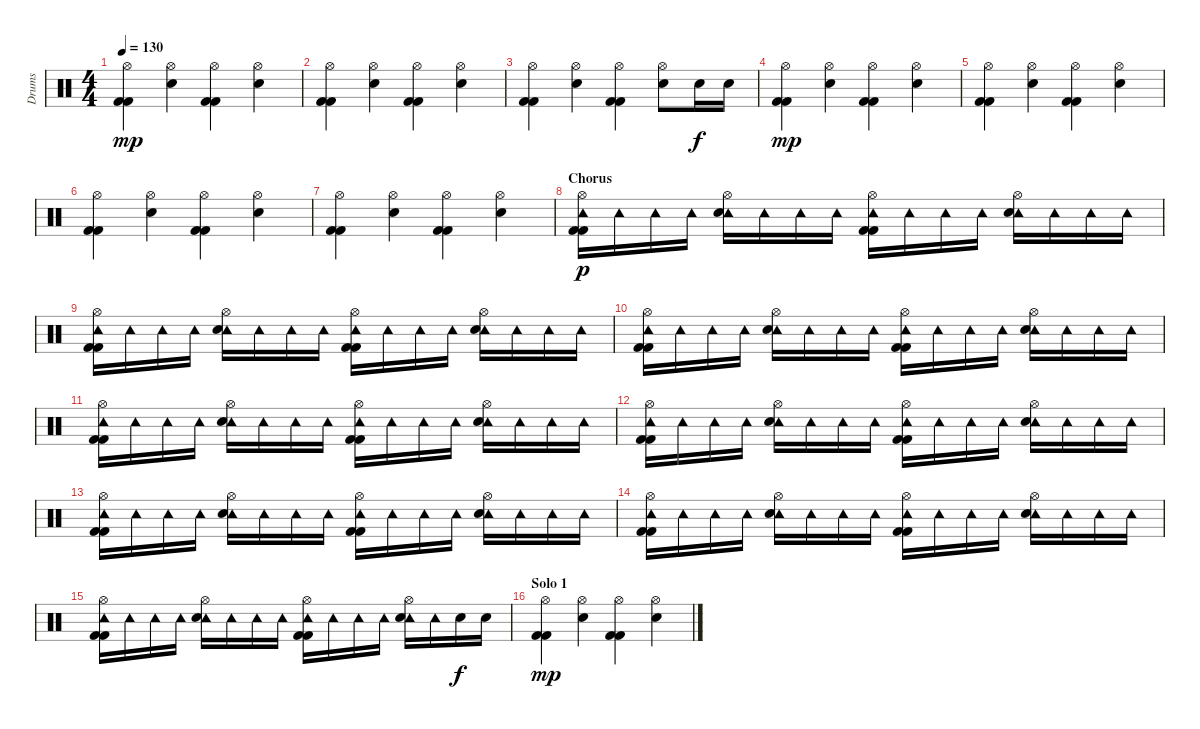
\track ("Drums" "Drums") {instrument percussion}
\staff {score}
\articulation defaults
\ts (4 4)
\tempo 130
\clef neutral
\ks c
("Hi-Hat (open)" "Kick (hit) 2" "Kick (hit) 2").4{dy mp} ("Hi-Hat (open)" "Snare (hit) 2").4 ("Hi-Hat (open)" "Kick (hit) 2" "Kick (hit) 2").4 ("Hi-Hat (open)" "Snare (hit) 2").4 |
("Hi-Hat (open)" "Kick (hit) 2" "Kick (hit) 2").4 ("Hi-Hat (open)" "Snare (hit) 2").4 ("Hi-Hat (open)" "Kick (hit) 2" "Kick (hit) 2").4 ("Hi-Hat (open)" "Snare (hit) 2").4 |
("Hi-Hat (open)" "Kick (hit) 2" "Kick (hit) 2").4 ("Hi-Hat (open)" "Snare (hit) 2").4 ("Hi-Hat (open)" "Kick (hit) 2" "Kick (hit) 2").4 ("Hi-Hat (open)" "Snare (hit) 2").8 "Snare (hit) 2".16{dy f} "Snare (hit) 2".16 |
("Hi-Hat (open)" "Kick (hit) 2" "Kick (hit) 2").4{dy mp} ("Hi-Hat (open)" "Snare (hit) 2").4 ("Hi-Hat (open)" "Kick (hit) 2" "Kick (hit) 2").4 ("Hi-Hat (open)" "Snare (hit) 2").4 |
("Hi-Hat (open)" "Kick (hit) 2" "Kick (hit) 2").4 ("Hi-Hat (open)" "Snare (hit) 2").4 ("Hi-Hat (open)" "Kick (hit) 2" "Kick (hit) 2").4 ("Hi-Hat (open)" "Snare (hit) 2").4 |
("Hi-Hat (open)" "Kick (hit) 2" "Kick (hit) 2").4 ("Hi-Hat (open)" "Snare (hit) 2").4 ("Hi-Hat (open)" "Kick (hit) 2" "Kick (hit) 2").4 ("Hi-Hat (open)" "Snare (hit) 2").4 |
("Hi-Hat (open)" "Kick (hit) 2" "Kick (hit) 2").4 ("Hi-Hat (open)" "Snare (hit) 2").4 ("Hi-Hat (open)" "Kick (hit) 2" "Kick (hit) 2").4 ("Hi-Hat (open)" "Snare (hit) 2").4 |
\section ("" "Chorus")
("Hi-Hat (open)" "Tambourine (hit)" "Kick (hit) 2" "Kick (hit) 2").16{dy p} "Tambourine (hit)".16 "Tambourine (hit)".16 "Tambourine (hit)".16 ("Hi-Hat (open)" "Tambourine (hit)" "Snare (hit) 2").16 "Tambourine (hit)".16 "Tambourine (hit)".16 "Tambourine (hit)".16 ("Hi-Hat (open)" "Tambourine (hit)" "Kick (hit) 2" "Kick (hit) 2").16 "Tambourine (hit)".16 "Tambourine (hit)".16 "Tambourine (hit)".16 ("Hi-Hat (open)" "Tambourine (hit)" "Snare (hit) 2").16 "Tambourine (hit)".16 "Tambourine (hit)".16 "Tambourine (hit)".16 |
("Hi-Hat (open)" "Tambourine (hit)" "Kick (hit) 2" "Kick (hit) 2").16 "Tambourine (hit)".16 "Tambourine (hit)".16 "Tambourine (hit)".16 ("Hi-Hat (open)" "Tambourine (hit)" "Snare (hit) 2").16 "Tambourine (hit)".16 "Tambourine (hit)".16 "Tambourine (hit)".16 ("Hi-Hat (open)" "Tambourine (hit)" "Kick (hit) 2" "Kick (hit) 2").16 "Tambourine (hit)".16 "Tambourine (hit)".16 "Tambourine (hit)".16 ("Hi-Hat (open)" "Tambourine (hit)" "Snare (hit) 2").16 "Tambourine (hit)".16 "Tambourine (hit)".16 "Tambourine (hit)".16 |
("Hi-Hat (open)" "Tambourine (hit)" "Kick (hit) 2" "Kick (hit) 2").16 "Tambourine (hit)".16 "Tambourine (hit)".16 "Tambourine (hit)".16 ("Hi-Hat (open)" "Tambourine (hit)" "Snare (hit) 2").16 "Tambourine (hit)".16 "Tambourine (hit)".16 "Tambourine (hit)".16 ("Hi-Hat (open)" "Tambourine (hit)" "Kick (hit) 2" "Kick (hit) 2").16 "Tambourine (hit)".16 "Tambourine (hit)".16 "Tambourine (hit)".16 ("Hi-Hat (open)" "Tambourine (hit)" "Snare (hit) 2").16 "Tambourine (hit)".16 "Tambourine (hit)".16 "Tambourine (hit)".16 |
("Hi-Hat (open)" "Tambourine (hit)" "Kick (hit) 2" "Kick (hit) 2").16 "Tambourine (hit)".16 "Tambourine (hit)".16 "Tambourine (hit)".16 ("Hi-Hat (open)" "Tambourine (hit)" "Snare (hit) 2").16 "Tambourine (hit)".16 "Tambourine (hit)".16 "Tambourine (hit)".16 ("Hi-Hat (open)" "Tambourine (hit)" "Kick (hit) 2" "Kick (hit) 2").16 "Tambourine (hit)".16 "Tambourine (hit)".16 "Tambourine (hit)".16 ("Hi-Hat (open)" "Tambourine (hit)" "Snare (hit) 2").16 "Tambourine (hit)".16 "Tambourine (hit)".16 "Tambourine (hit)".16 |
("Hi-Hat (open)" "Tambourine (hit)" "Kick (hit) 2" "Kick (hit) 2").16 "Tambourine (hit)".16 "Tambourine (hit)".16 "Tambourine (hit)".16 ("Hi-Hat (open)" "Tambourine (hit)" "Snare (hit) 2").16 "Tambourine (hit)".16 "Tambourine (hit)".16 "Tambourine (hit)".16 ("Hi-Hat (open)" "Tambourine (hit)" "Kick (hit) 2" "Kick (hit) 2").16 "Tambourine (hit)".16 "Tambourine (hit)".16 "Tambourine (hit)".16 ("Hi-Hat (open)" "Tambourine (hit)" "Snare (hit) 2").16 "Tambourine (hit)".16 "Tambourine (hit)".16 "Tambourine (hit)".16 |
("Hi-Hat (open)" "Tambourine (hit)" "Kick (hit) 2" "Kick (hit) 2").16 "Tambourine (hit)".16 "Tambourine (hit)".16 "Tambourine (hit)".16 ("Hi-Hat (open)" "Tambourine (hit)" "Snare (hit) 2").16 "Tambourine (hit)".16 "Tambourine (hit)".16 "Tambourine (hit)".16 ("Hi-Hat (open)" "Tambourine (hit)" "Kick (hit) 2" "Kick (hit) 2").16 "Tambourine (hit)".16 "Tambourine (hit)".16 "Tambourine (hit)".16 ("Hi-Hat (open)" "Tambourine (hit)" "Snare (hit) 2").16 "Tambourine (hit)".16 "Tambourine (hit)".16 "Tambourine (hit)".16 |
("Hi-Hat (open)" "Tambourine (hit)" "Kick (hit) 2" "Kick (hit) 2").16 "Tambourine (hit)".16 "Tambourine (hit)".16 "Tambourine (hit)".16 ("Hi-Hat (open)" "Tambourine (hit)" "Snare (hit) 2").16 "Tambourine (hit)".16 "Tambourine (hit)".16 "Tambourine (hit)".16 ("Hi-Hat (open)" "Tambourine (hit)" "Kick (hit) 2" "Kick (hit) 2").16 "Tambourine (hit)".16 "Tambourine (hit)".16 "Tambourine (hit)".16 ("Hi-Hat (open)" "Tambourine (hit)" "Snare (hit) 2").16 "Tambourine (hit)".16 "Tambourine (hit)".16 "Tambourine (hit)".16 |
("Hi-Hat (open)" "Tambourine (hit)" "Kick (hit) 2" "Kick (hit) 2").16 "Tambourine (hit)".16 "Tambourine (hit)".16 "Tambourine (hit)".16 ("Hi-Hat (open)" "Tambourine (hit)" "Snare (hit) 2").16 "Tambourine (hit)".16 "Tambourine (hit)".16 "Tambourine (hit)".16 ("Hi-Hat (open)" "Tambourine (hit)" "Kick (hit) 2" "Kick (hit) 2").16 "Tambourine (hit)".16 "Tambourine (hit)".16 "Tambourine (hit)".16 ("Hi-Hat (open)" "Tambourine (hit)" "Snare (hit) 2").16 "Tambourine (hit)".16 "Snare (hit) 2".16{dy f} "Snare (hit) 2".16 |
\section ("" "Solo 1")
("Hi-Hat (open)" "Kick (hit) 2" "Kick (hit) 2").4{dy mp} ("Hi-Hat (open)" "Snare (hit) 2").4 ("Hi-Hat (open)" "Kick (hit) 2" "Kick (hit) 2").4 ("Hi-Hat (open)" "Snare (hit) 2").4
